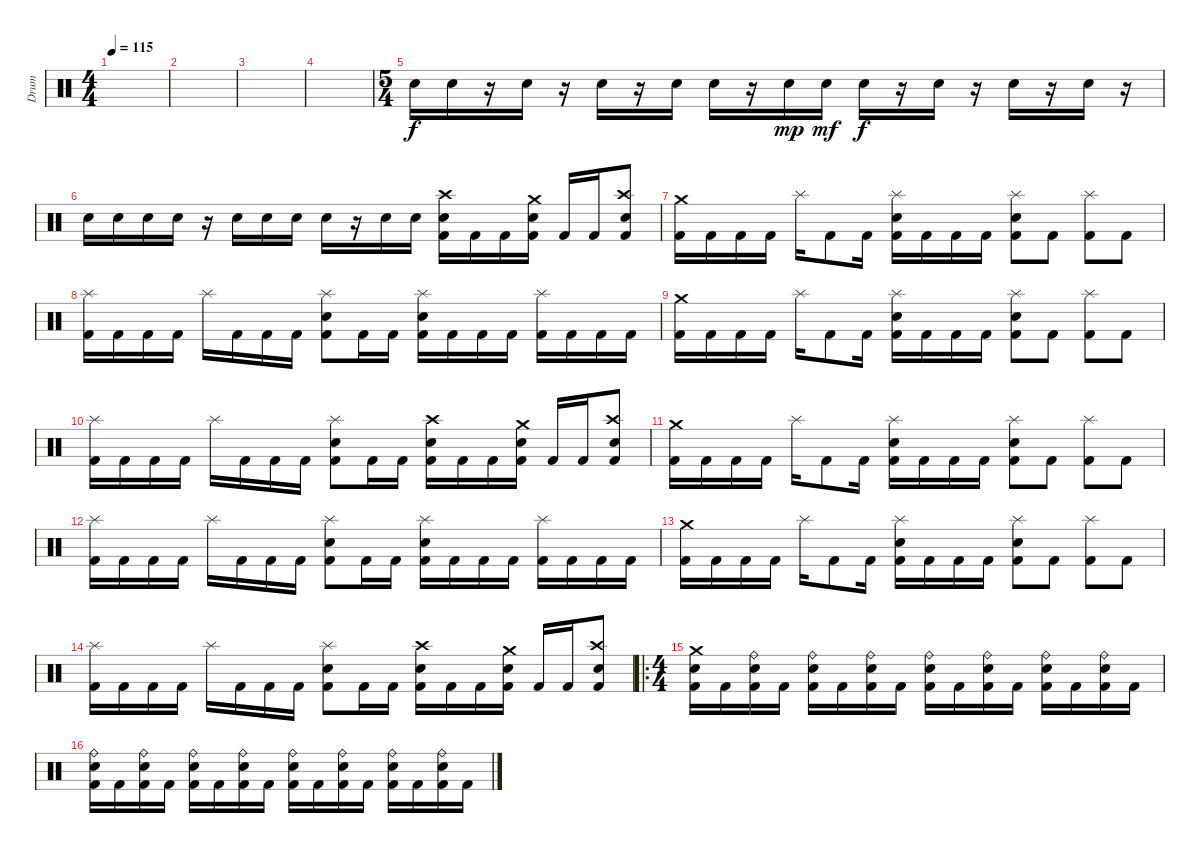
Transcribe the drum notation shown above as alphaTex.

\track ("Drum" "Drum") {instrument percussion}
\staff {score}
\articulation defaults
\ts (4 4)
\tempo 115
\clef neutral
\ks c
|
|
|
|
\ts (5 4)
"Electric Snare (hit)".16 "Electric Snare (hit)".16 r.16 "Electric Snare (hit)".16 r.16 "Electric Snare (hit)".16 r.16 "Electric Snare (hit)".16 "Electric Snare (hit)".16 r.16 "Electric Snare (hit)".16{dy mp} "Electric Snare (hit)".16{dy mf} "Electric Snare (hit)".16{dy f} r.16 "Electric Snare (hit)".16 r.16 "Electric Snare (hit)".16 r.16 "Electric Snare (hit)".16 r.16 |
"Electric Snare (hit)".16 "Electric Snare (hit)".16 "Electric Snare (hit)".16 "Electric Snare (hit)".16 r.16 "Electric Snare (hit)".16 "Electric Snare (hit)".16 "Electric Snare (hit)".16 "Electric Snare (hit)".16 r.16 "Electric Snare (hit)".16 "Electric Snare (hit)".16 ("Crash high (hit)" "Electric Snare (hit)" "Kick (hit) 2").16 "Kick (hit) 2".16 "Kick (hit) 2".16 ("Crash medium (hit)" "Electric Snare (hit)" "Kick (hit) 2").16 "Kick (hit) 2".16 "Kick (hit) 2".16 ("Crash high (hit)" "Electric Snare (hit)" "Kick (hit) 2").8 |
("Crash medium (hit)" "Kick (hit) 2").16 "Kick (hit) 2".16 "Kick (hit) 2".16 "Kick (hit) 2".16 "Splash (hit)".16 "Kick (hit) 2".8 "Kick (hit) 2".16 ("Splash (hit)" "Electric Snare (hit)" "Kick (hit) 2").16 "Kick (hit) 2".16 "Kick (hit) 2".16 "Kick (hit) 2".16 ("Splash (hit)" "Electric Snare (hit)" "Kick (hit) 2").8 "Kick (hit) 2".8 ("Splash (hit)" "Kick (hit) 2").8 "Kick (hit) 2".8 |
("Splash (hit)" "Kick (hit) 2").16 "Kick (hit) 2".16 "Kick (hit) 2".16 "Kick (hit) 2".16 "Splash (hit)".16 "Kick (hit) 2".16 "Kick (hit) 2".16 "Kick (hit) 2".16 ("Splash (hit)" "Electric Snare (hit)" "Kick (hit) 2").8 "Kick (hit) 2".16 "Kick (hit) 2".16 ("Splash (hit)" "Electric Snare (hit)" "Kick (hit) 2").16 "Kick (hit) 2".16 "Kick (hit) 2".16 "Kick (hit) 2".16 ("Splash (hit)" "Kick (hit) 2").16 "Kick (hit) 2".16 "Kick (hit) 2".16 "Kick (hit) 2".16 |
("Crash medium (hit)" "Kick (hit) 2").16 "Kick (hit) 2".16 "Kick (hit) 2".16 "Kick (hit) 2".16 "Splash (hit)".16 "Kick (hit) 2".8 "Kick (hit) 2".16 ("Splash (hit)" "Electric Snare (hit)" "Kick (hit) 2").16 "Kick (hit) 2".16 "Kick (hit) 2".16 "Kick (hit) 2".16 ("Splash (hit)" "Electric Snare (hit)" "Kick (hit) 2").8 "Kick (hit) 2".8 ("Splash (hit)" "Kick (hit) 2").8 "Kick (hit) 2".8 |
("Splash (hit)" "Kick (hit) 2").16 "Kick (hit) 2".16 "Kick (hit) 2".16 "Kick (hit) 2".16 "Splash (hit)".16 "Kick (hit) 2".16 "Kick (hit) 2".16 "Kick (hit) 2".16 ("Splash (hit)" "Electric Snare (hit)" "Kick (hit) 2").8 "Kick (hit) 2".16 "Kick (hit) 2".16 ("Crash high (hit)" "Electric Snare (hit)" "Kick (hit) 2").16 "Kick (hit) 2".16 "Kick (hit) 2".16 ("Crash medium (hit)" "Electric Snare (hit)" "Kick (hit) 2").16 "Kick (hit) 2".16 "Kick (hit) 2".16 ("Crash high (hit)" "Electric Snare (hit)" "Kick (hit) 2").8 |
("Crash medium (hit)" "Kick (hit) 2").16 "Kick (hit) 2".16 "Kick (hit) 2".16 "Kick (hit) 2".16 "Splash (hit)".16 "Kick (hit) 2".8 "Kick (hit) 2".16 ("Splash (hit)" "Electric Snare (hit)" "Kick (hit) 2").16 "Kick (hit) 2".16 "Kick (hit) 2".16 "Kick (hit) 2".16 ("Splash (hit)" "Electric Snare (hit)" "Kick (hit) 2").8 "Kick (hit) 2".8 ("Splash (hit)" "Kick (hit) 2").8 "Kick (hit) 2".8 |
("Splash (hit)" "Kick (hit) 2").16 "Kick (hit) 2".16 "Kick (hit) 2".16 "Kick (hit) 2".16 "Splash (hit)".16 "Kick (hit) 2".16 "Kick (hit) 2".16 "Kick (hit) 2".16 ("Splash (hit)" "Electric Snare (hit)" "Kick (hit) 2").8 "Kick (hit) 2".16 "Kick (hit) 2".16 ("Splash (hit)" "Electric Snare (hit)" "Kick (hit) 2").16 "Kick (hit) 2".16 "Kick (hit) 2".16 "Kick (hit) 2".16 ("Splash (hit)" "Kick (hit) 2").16 "Kick (hit) 2".16 "Kick (hit) 2".16 "Kick (hit) 2".16 |
("Crash medium (hit)" "Kick (hit) 2").16 "Kick (hit) 2".16 "Kick (hit) 2".16 "Kick (hit) 2".16 "Splash (hit)".16 "Kick (hit) 2".8 "Kick (hit) 2".16 ("Splash (hit)" "Electric Snare (hit)" "Kick (hit) 2").16 "Kick (hit) 2".16 "Kick (hit) 2".16 "Kick (hit) 2".16 ("Splash (hit)" "Electric Snare (hit)" "Kick (hit) 2").8 "Kick (hit) 2".8 ("Splash (hit)" "Kick (hit) 2").8 "Kick (hit) 2".8 |
("Splash (hit)" "Kick (hit) 2").16 "Kick (hit) 2".16 "Kick (hit) 2".16 "Kick (hit) 2".16 "Splash (hit)".16 "Kick (hit) 2".16 "Kick (hit) 2".16 "Kick (hit) 2".16 ("Splash (hit)" "Electric Snare (hit)" "Kick (hit) 2").8 "Kick (hit) 2".16 "Kick (hit) 2".16 ("Crash high (hit)" "Electric Snare (hit)" "Kick (hit) 2").16 "Kick (hit) 2".16 "Kick (hit) 2".16 ("Crash medium (hit)" "Electric Snare (hit)" "Kick (hit) 2").16 "Kick (hit) 2".16 "Kick (hit) 2".16 ("Crash high (hit)" "Electric Snare (hit)" "Kick (hit) 2").8 |
\ro
\ts (4 4)
("Crash medium (hit)" "Electric Snare (hit)" "Kick (hit) 2").16 "Kick (hit) 2".16 ("Ride (bell)" "Electric Snare (hit)" "Kick (hit) 2").16 "Kick (hit) 2".16 ("Ride (bell)" "Electric Snare (hit)" "Kick (hit) 2").16 "Kick (hit) 2".16 ("Ride (bell)" "Electric Snare (hit)" "Kick (hit) 2").16 "Kick (hit) 2".16 ("Ride (bell)" "Electric Snare (hit)" "Kick (hit) 2").16 "Kick (hit) 2".16 ("Ride (bell)" "Electric Snare (hit)" "Kick (hit) 2").16 "Kick (hit) 2".16 ("Ride (bell)" "Electric Snare (hit)" "Kick (hit) 2").16 "Kick (hit) 2".16 ("Ride (bell)" "Electric Snare (hit)" "Kick (hit) 2").16 "Kick (hit) 2".16 |
("Ride (bell)" "Electric Snare (hit)" "Kick (hit) 2").16 "Kick (hit) 2".16 ("Ride (bell)" "Electric Snare (hit)" "Kick (hit) 2").16 "Kick (hit) 2".16 ("Ride (bell)" "Electric Snare (hit)" "Kick (hit) 2").16 "Kick (hit) 2".16 ("Ride (bell)" "Electric Snare (hit)" "Kick (hit) 2").16 "Kick (hit) 2".16 ("Ride (bell)" "Electric Snare (hit)" "Kick (hit) 2").16 "Kick (hit) 2".16 ("Ride (bell)" "Electric Snare (hit)" "Kick (hit) 2").16 "Kick (hit) 2".16 ("Ride (bell)" "Electric Snare (hit)" "Kick (hit) 2").16 "Kick (hit) 2".16 ("Ride (bell)" "Electric Snare (hit)" "Kick (hit) 2").16 "Kick (hit) 2".16
